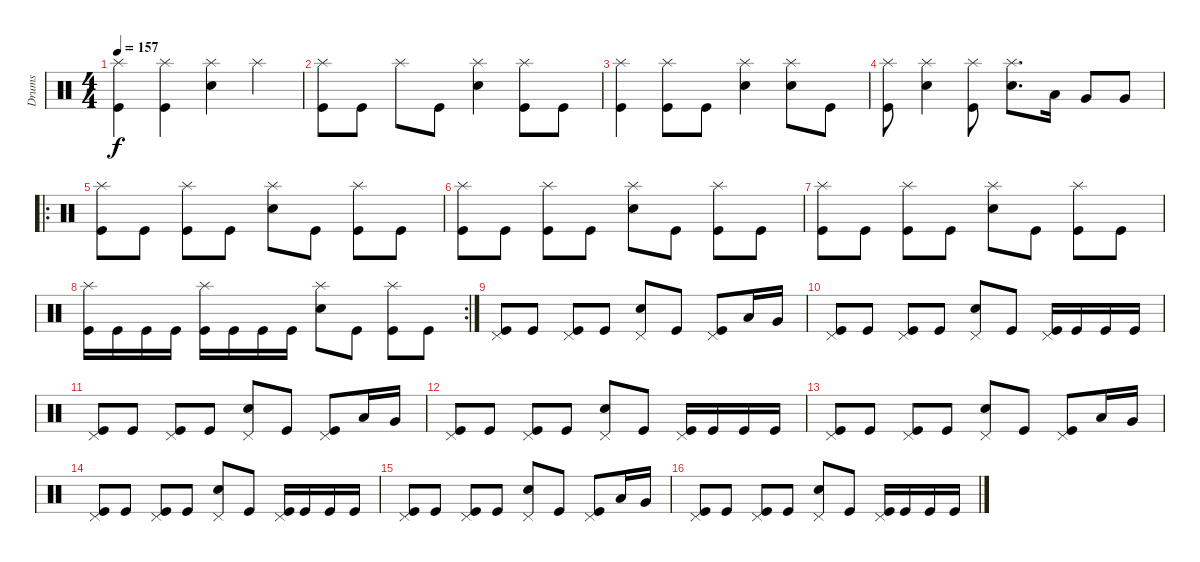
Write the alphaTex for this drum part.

\track ("Drums" "Drums") {instrument percussion}
\staff {score}
\articulation defaults
\ts (4 4)
\tempo 157
\clef neutral
\ks c
("Splash (hit)" "Kick (hit)").4{dy f} ("Splash (hit)" "Kick (hit)").4 ("Splash (hit)" "Electric Snare (hit)").4 "Splash (hit)".4 |
("Splash (hit)" "Kick (hit)").8 "Kick (hit)".8 "Splash (hit)".8 "Kick (hit)".8 ("Splash (hit)" "Electric Snare (hit)").4 ("Splash (hit)" "Kick (hit)").8 "Kick (hit)".8 |
("Splash (hit)" "Kick (hit)").4 ("Splash (hit)" "Kick (hit)").8 "Kick (hit)".8 ("Splash (hit)" "Electric Snare (hit)").4 ("Splash (hit)" "Electric Snare (hit)").8 "Kick (hit)".8 |
("Splash (hit)" "Kick (hit)").8 ("Splash (hit)" "Electric Snare (hit)").4 ("Splash (hit)" "Kick (hit)").8 ("Splash (hit)" "Electric Snare (hit)").8{d} "Low Tom (hit)".16 "Very Low Tom (hit)".8 "Very Low Tom (hit)".8 |
\ro
("Splash (hit)" "Kick (hit)").8 "Kick (hit)".8 ("Splash (hit)" "Kick (hit)").8 "Kick (hit)".8 ("Splash (hit)" "Electric Snare (hit)").8 "Kick (hit)".8 ("Splash (hit)" "Kick (hit)").8 "Kick (hit)".8 |
("Splash (hit)" "Kick (hit)").8 "Kick (hit)".8 ("Splash (hit)" "Kick (hit)").8 "Kick (hit)".8 ("Splash (hit)" "Electric Snare (hit)").8 "Kick (hit)".8 ("Splash (hit)" "Kick (hit)").8 "Kick (hit)".8 |
("Splash (hit)" "Kick (hit)").8 "Kick (hit)".8 ("Splash (hit)" "Kick (hit)").8 "Kick (hit)".8 ("Splash (hit)" "Electric Snare (hit)").8 "Kick (hit)".8 ("Splash (hit)" "Kick (hit)").8 "Kick (hit)".8 |
\rc 2
("Splash (hit)" "Kick (hit)").16 "Kick (hit)".16 "Kick (hit)".16 "Kick (hit)".16 ("Splash (hit)" "Kick (hit)").16 "Kick (hit)".16 "Kick (hit)".16 "Kick (hit)".16 ("Splash (hit)" "Electric Snare (hit)").8 "Kick (hit)".8 ("Splash (hit)" "Kick (hit)").8 "Kick (hit)".8 |
("Pedal Hi-Hat (hit)" "Kick (hit)").8 "Kick (hit)".8 ("Pedal Hi-Hat (hit)" "Kick (hit)").8 "Kick (hit)".8 ("Pedal Hi-Hat (hit)" "Electric Snare (hit)").8 "Kick (hit)".8 ("Pedal Hi-Hat (hit)" "Kick (hit)").8 "Low Tom (hit)".16 "Very Low Tom (hit)".16 |
("Pedal Hi-Hat (hit)" "Kick (hit)").8 "Kick (hit)".8 ("Pedal Hi-Hat (hit)" "Kick (hit)").8 "Kick (hit)".8 ("Pedal Hi-Hat (hit)" "Electric Snare (hit)").8 "Kick (hit)".8 ("Pedal Hi-Hat (hit)" "Kick (hit)").16 "Kick (hit)".16 "Kick (hit)".16 "Kick (hit)".16 |
("Pedal Hi-Hat (hit)" "Kick (hit)").8 "Kick (hit)".8 ("Pedal Hi-Hat (hit)" "Kick (hit)").8 "Kick (hit)".8 ("Pedal Hi-Hat (hit)" "Electric Snare (hit)").8 "Kick (hit)".8 ("Pedal Hi-Hat (hit)" "Kick (hit)").8 "Low Tom (hit)".16 "Very Low Tom (hit)".16 |
("Pedal Hi-Hat (hit)" "Kick (hit)").8 "Kick (hit)".8 ("Pedal Hi-Hat (hit)" "Kick (hit)").8 "Kick (hit)".8 ("Pedal Hi-Hat (hit)" "Electric Snare (hit)").8 "Kick (hit)".8 ("Pedal Hi-Hat (hit)" "Kick (hit)").16 "Kick (hit)".16 "Kick (hit)".16 "Kick (hit)".16 |
("Pedal Hi-Hat (hit)" "Kick (hit)").8 "Kick (hit)".8 ("Pedal Hi-Hat (hit)" "Kick (hit)").8 "Kick (hit)".8 ("Pedal Hi-Hat (hit)" "Electric Snare (hit)").8 "Kick (hit)".8 ("Pedal Hi-Hat (hit)" "Kick (hit)").8 "Low Tom (hit)".16 "Very Low Tom (hit)".16 |
("Pedal Hi-Hat (hit)" "Kick (hit)").8 "Kick (hit)".8 ("Pedal Hi-Hat (hit)" "Kick (hit)").8 "Kick (hit)".8 ("Pedal Hi-Hat (hit)" "Electric Snare (hit)").8 "Kick (hit)".8 ("Pedal Hi-Hat (hit)" "Kick (hit)").16 "Kick (hit)".16 "Kick (hit)".16 "Kick (hit)".16 |
("Pedal Hi-Hat (hit)" "Kick (hit)").8 "Kick (hit)".8 ("Pedal Hi-Hat (hit)" "Kick (hit)").8 "Kick (hit)".8 ("Pedal Hi-Hat (hit)" "Electric Snare (hit)").8 "Kick (hit)".8 ("Pedal Hi-Hat (hit)" "Kick (hit)").8 "Low Tom (hit)".16 "Very Low Tom (hit)".16 |
("Pedal Hi-Hat (hit)" "Kick (hit)").8 "Kick (hit)".8 ("Pedal Hi-Hat (hit)" "Kick (hit)").8 "Kick (hit)".8 ("Pedal Hi-Hat (hit)" "Electric Snare (hit)").8 "Kick (hit)".8 ("Pedal Hi-Hat (hit)" "Kick (hit)").16 "Kick (hit)".16 "Kick (hit)".16 "Kick (hit)".16
